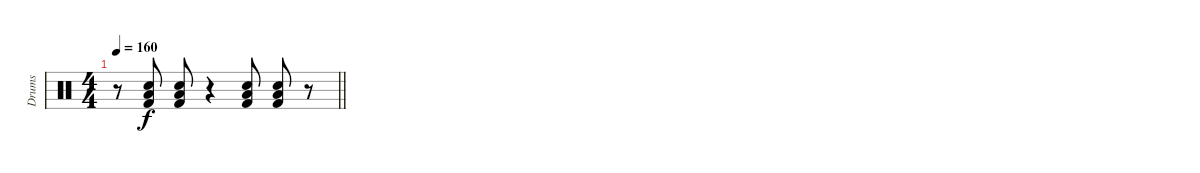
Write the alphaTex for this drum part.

\track ("Drums" "Drums") {instrument percussion}
\staff {score}
\articulation defaults
\ts (4 4)
\tempo 160
\clef neutral
\barLineRight lightlight
\ks c
r.8{dy f} ("Low Tom (hit)" "Electric Snare (hit)" "Kick (hit) 2").8 ("Low Tom (hit)" "Electric Snare (hit)" "Kick (hit) 2").8 r.4 ("Low Tom (hit)" "Electric Snare (hit)" "Kick (hit) 2").8 ("Low Tom (hit)" "Electric Snare (hit)" "Kick (hit) 2").8 r.8
